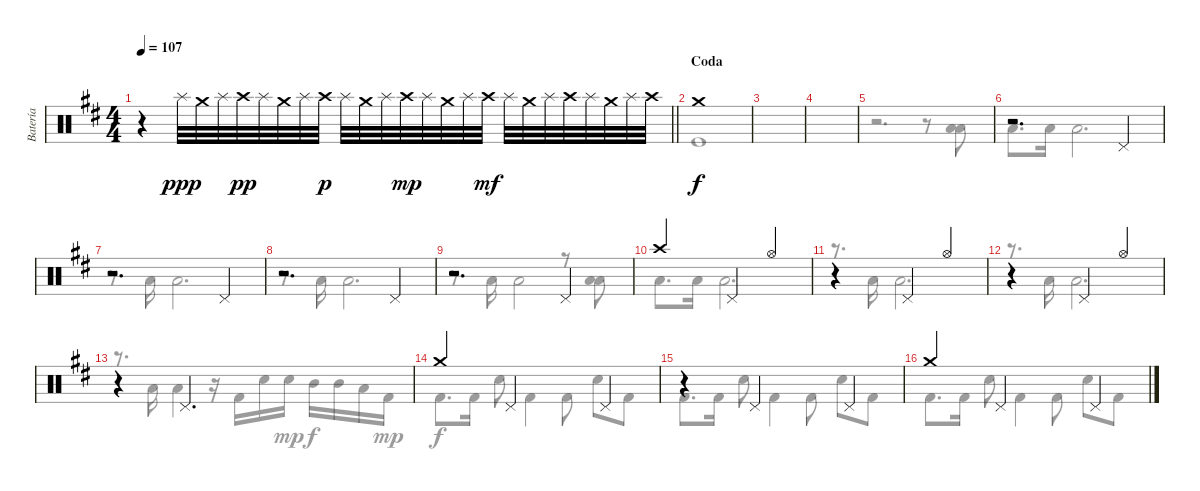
\track ("Batería" "Batería") {instrument percussion}
\staff {score}
\articulation defaults
\voice
\ts (4 4)
\tempo 107
\clef neutral
\barLineRight lightlight
\ks d
r.4{dy f} "Splash (hit)".32{dy ppp} "Crash medium (hit)".32 "Splash (hit)".32 "Crash high (hit)".32{dy pp} "Splash (hit)".32 "Crash medium (hit)".32 "Splash (hit)".32 "Crash high (hit)".32{dy p} "Splash (hit)".32 "Crash medium (hit)".32 "Splash (hit)".32 "Crash high (hit)".32{dy mp} "Splash (hit)".32 "Crash medium (hit)".32 "Splash (hit)".32 "Crash high (hit)".32{dy mf} "Splash (hit)".32 "Crash medium (hit)".32 "Splash (hit)".32 "Crash high (hit)".32 "Splash (hit)".32 "Crash medium (hit)".32 "Splash (hit)".32 "Crash high (hit)".32 |
\section ("" "Coda")
"Crash medium (hit)".1{dy f} |
|
|
|
r.2{d} "Pedal Hi-Hat (hit)".4 |
r.2{d} "Pedal Hi-Hat (hit)".4 |
r.2{d} "Pedal Hi-Hat (hit)".4 |
r.2{d} "Pedal Hi-Hat (hit)".4 |
"Crash high (hit)".4 "Pedal Hi-Hat (hit)".2 "Hi-Hat (open)".4 |
r.4 "Pedal Hi-Hat (hit)".2 "Hi-Hat (open)".4 |
r.4 "Pedal Hi-Hat (hit)".2 "Hi-Hat (open)".4 |
r.4 "Pedal Hi-Hat (hit)".2{d} |
"Crash medium (hit)".4 "Pedal Hi-Hat (hit)".2 "Pedal Hi-Hat (hit)".4 |
r.4 "Pedal Hi-Hat (hit)".2 "Pedal Hi-Hat (hit)".4 |
"Crash medium (hit)".4 "Pedal Hi-Hat (hit)".2 "Pedal Hi-Hat (hit)".4
\voice
\clef neutral
\ottava regular
\simile none
\barLineRight lightlight
\ks d
|
"Kick (hit)".1 |
|
|
r.2{d} r.8 ("Low Floor Tom (hit)" "Low Floor Tom (hit)").8{bd 60} |
"Low Tom (hit)".8{d} "Low Tom (hit)".16 "Low Tom (hit)".2{d} |
r.8{d} "Low Tom (hit)".16 "Low Tom (hit)".2{d} |
r.8{d} "Low Tom (hit)".16 "Low Tom (hit)".2{d} |
r.8{d} "Low Tom (hit)".16 "Low Tom (hit)".2 r.8 ("Low Floor Tom (hit)" "Low Floor Tom (hit)").8{bd 60} |
"Low Tom (hit)".8{d} "Low Tom (hit)".16 "Low Tom (hit)".2{d} |
r.8{d} "Low Tom (hit)".16 "Low Tom (hit)".2{d} |
r.8{d} "Low Tom (hit)".16 "Low Tom (hit)".2{d} |
r.8{d} "Low Tom (hit)".16 "Low Tom (hit)".4 r.16 "Kick (hit) 2".16 "Electric Snare (hit)".16 "Electric Snare (hit)".16{dy mp} "Mid Tom (hit)".16{dy f} "Mid Tom (hit)".16 "Low Tom (hit)".16 "Kick (hit) 2".16{dy mp} |
"Kick (hit) 2".8{d dy f} "Kick (hit) 2".16 "Electric Snare (hit)".8 "Kick (hit) 2".4 "Kick (hit) 2".8 "Electric Snare (hit)".8 "Kick (hit) 2".8 |
"Kick (hit) 2".8{d} "Kick (hit) 2".16 "Electric Snare (hit)".8 "Kick (hit) 2".4 "Kick (hit) 2".8 "Electric Snare (hit)".8 "Kick (hit) 2".8 |
"Kick (hit) 2".8{d} "Kick (hit) 2".16 "Electric Snare (hit)".8 "Kick (hit) 2".4 "Kick (hit) 2".8 "Electric Snare (hit)".8 "Kick (hit) 2".8
